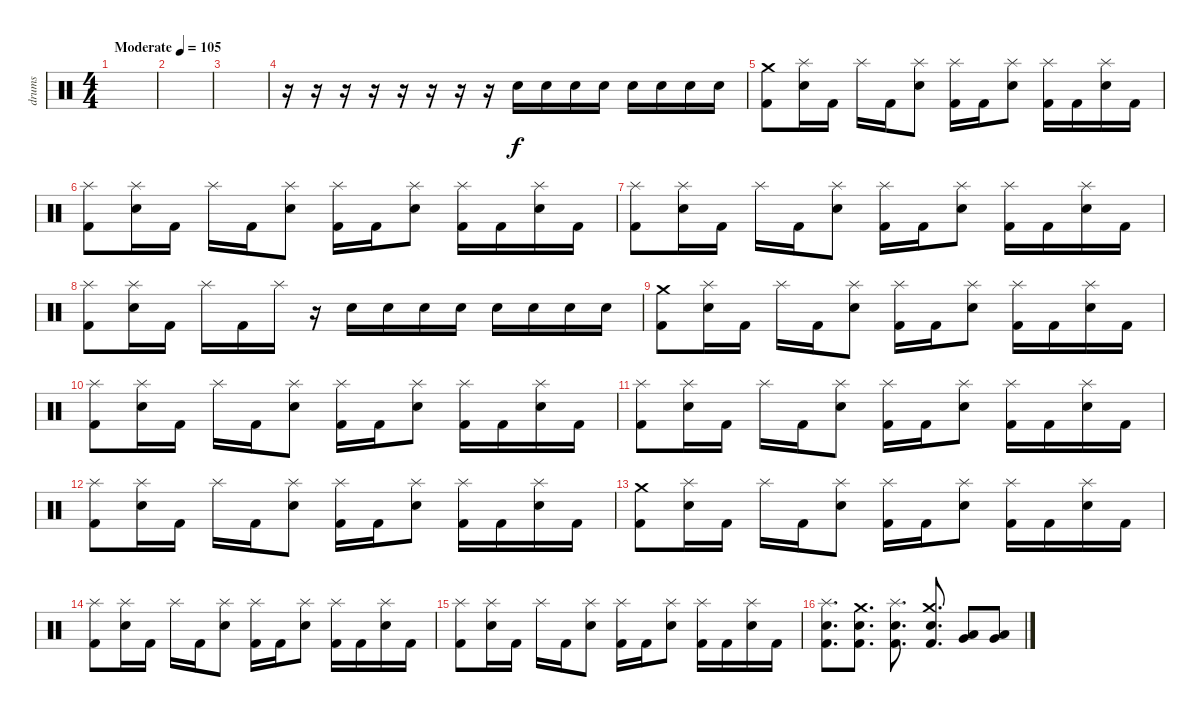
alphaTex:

\track ("drums" "drums") {instrument percussion}
\staff {score}
\articulation defaults
\ts (4 4)
\tempo (105 "Moderate")
\clef neutral
\ks c
|
|
|
r.16 r.16 r.16 r.16 r.16 r.16 r.16 r.16 "Electric Snare (hit)".16 "Electric Snare (hit)".16 "Electric Snare (hit)".16 "Electric Snare (hit)".16 "Electric Snare (hit)".16 "Electric Snare (hit)".16 "Electric Snare (hit)".16 "Electric Snare (hit)".16 |
("Crash medium (hit)" "Kick (hit) 2").8 ("Splash (hit)" "Electric Snare (hit)").16 "Kick (hit) 2".16 "Splash (hit)".16 "Kick (hit) 2".16 ("Splash (hit)" "Electric Snare (hit)").8 ("Splash (hit)" "Kick (hit) 2").16 "Kick (hit) 2".16 ("Splash (hit)" "Electric Snare (hit)").8 ("Splash (hit)" "Kick (hit) 2").16 "Kick (hit) 2".16 ("Splash (hit)" "Electric Snare (hit)").16 "Kick (hit) 2".16 |
("Splash (hit)" "Kick (hit) 2").8 ("Splash (hit)" "Electric Snare (hit)").16 "Kick (hit) 2".16 "Splash (hit)".16 "Kick (hit) 2".16 ("Splash (hit)" "Electric Snare (hit)").8 ("Splash (hit)" "Kick (hit) 2").16 "Kick (hit) 2".16 ("Splash (hit)" "Electric Snare (hit)").8 ("Splash (hit)" "Kick (hit) 2").16 "Kick (hit) 2".16 ("Splash (hit)" "Electric Snare (hit)").16 "Kick (hit) 2".16 |
("Splash (hit)" "Kick (hit) 2").8 ("Splash (hit)" "Electric Snare (hit)").16 "Kick (hit) 2".16 "Splash (hit)".16 "Kick (hit) 2".16 ("Splash (hit)" "Electric Snare (hit)").8 ("Splash (hit)" "Kick (hit) 2").16 "Kick (hit) 2".16 ("Splash (hit)" "Electric Snare (hit)").8 ("Splash (hit)" "Kick (hit) 2").16 "Kick (hit) 2".16 ("Splash (hit)" "Electric Snare (hit)").16 "Kick (hit) 2".16 |
("Splash (hit)" "Kick (hit) 2").8 ("Splash (hit)" "Electric Snare (hit)").16 "Kick (hit) 2".16 "Splash (hit)".16 "Kick (hit) 2".16 "Splash (hit)".16 r.16 "Electric Snare (hit)".16 "Electric Snare (hit)".16 "Electric Snare (hit)".16 "Electric Snare (hit)".16 "Electric Snare (hit)".16 "Electric Snare (hit)".16 "Electric Snare (hit)".16 "Electric Snare (hit)".16 |
("Crash medium (hit)" "Kick (hit) 2").8 ("Splash (hit)" "Electric Snare (hit)").16 "Kick (hit) 2".16 "Splash (hit)".16 "Kick (hit) 2".16 ("Splash (hit)" "Electric Snare (hit)").8 ("Splash (hit)" "Kick (hit) 2").16 "Kick (hit) 2".16 ("Splash (hit)" "Electric Snare (hit)").8 ("Splash (hit)" "Kick (hit) 2").16 "Kick (hit) 2".16 ("Splash (hit)" "Electric Snare (hit)").16 "Kick (hit) 2".16 |
("Splash (hit)" "Kick (hit) 2").8 ("Splash (hit)" "Electric Snare (hit)").16 "Kick (hit) 2".16 "Splash (hit)".16 "Kick (hit) 2".16 ("Splash (hit)" "Electric Snare (hit)").8 ("Splash (hit)" "Kick (hit) 2").16 "Kick (hit) 2".16 ("Splash (hit)" "Electric Snare (hit)").8 ("Splash (hit)" "Kick (hit) 2").16 "Kick (hit) 2".16 ("Splash (hit)" "Electric Snare (hit)").16 "Kick (hit) 2".16 |
("Splash (hit)" "Kick (hit) 2").8 ("Splash (hit)" "Electric Snare (hit)").16 "Kick (hit) 2".16 "Splash (hit)".16 "Kick (hit) 2".16 ("Splash (hit)" "Electric Snare (hit)").8 ("Splash (hit)" "Kick (hit) 2").16 "Kick (hit) 2".16 ("Splash (hit)" "Electric Snare (hit)").8 ("Splash (hit)" "Kick (hit) 2").16 "Kick (hit) 2".16 ("Splash (hit)" "Electric Snare (hit)").16 "Kick (hit) 2".16 |
("Splash (hit)" "Kick (hit) 2").8 ("Splash (hit)" "Electric Snare (hit)").16 "Kick (hit) 2".16 "Splash (hit)".16 "Kick (hit) 2".16 ("Splash (hit)" "Electric Snare (hit)").8 ("Splash (hit)" "Kick (hit) 2").16 "Kick (hit) 2".16 ("Splash (hit)" "Electric Snare (hit)").8 ("Splash (hit)" "Kick (hit) 2").16 "Kick (hit) 2".16 ("Splash (hit)" "Electric Snare (hit)").16 "Kick (hit) 2".16 |
("Crash medium (hit)" "Kick (hit) 2").8 ("Splash (hit)" "Electric Snare (hit)").16 "Kick (hit) 2".16 "Splash (hit)".16 "Kick (hit) 2".16 ("Splash (hit)" "Electric Snare (hit)").8 ("Splash (hit)" "Kick (hit) 2").16 "Kick (hit) 2".16 ("Splash (hit)" "Electric Snare (hit)").8 ("Splash (hit)" "Kick (hit) 2").16 "Kick (hit) 2".16 ("Splash (hit)" "Electric Snare (hit)").16 "Kick (hit) 2".16 |
("Splash (hit)" "Kick (hit) 2").8 ("Splash (hit)" "Electric Snare (hit)").16 "Kick (hit) 2".16 "Splash (hit)".16 "Kick (hit) 2".16 ("Splash (hit)" "Electric Snare (hit)").8 ("Splash (hit)" "Kick (hit) 2").16 "Kick (hit) 2".16 ("Splash (hit)" "Electric Snare (hit)").8 ("Splash (hit)" "Kick (hit) 2").16 "Kick (hit) 2".16 ("Splash (hit)" "Electric Snare (hit)").16 "Kick (hit) 2".16 |
("Splash (hit)" "Kick (hit) 2").8 ("Splash (hit)" "Electric Snare (hit)").16 "Kick (hit) 2".16 "Splash (hit)".16 "Kick (hit) 2".16 ("Splash (hit)" "Electric Snare (hit)").8 ("Splash (hit)" "Kick (hit) 2").16 "Kick (hit) 2".16 ("Splash (hit)" "Electric Snare (hit)").8 ("Splash (hit)" "Kick (hit) 2").16 "Kick (hit) 2".16 ("Splash (hit)" "Electric Snare (hit)").16 "Kick (hit) 2".16 |
("Splash (hit)" "Electric Snare (hit)" "Kick (hit) 2").8{d} ("Crash medium (hit)" "Electric Snare (hit)" "Kick (hit) 2").8{d} ("Splash (hit)" "Electric Snare (hit)" "Kick (hit) 2").8{d} ("Crash medium (hit)" "Electric Snare (hit)" "Kick (hit) 2").8{d} ("Low Tom (hit)" "Very Low Tom (hit)").8 ("Low Tom (hit)" "Very Low Tom (hit)").8
